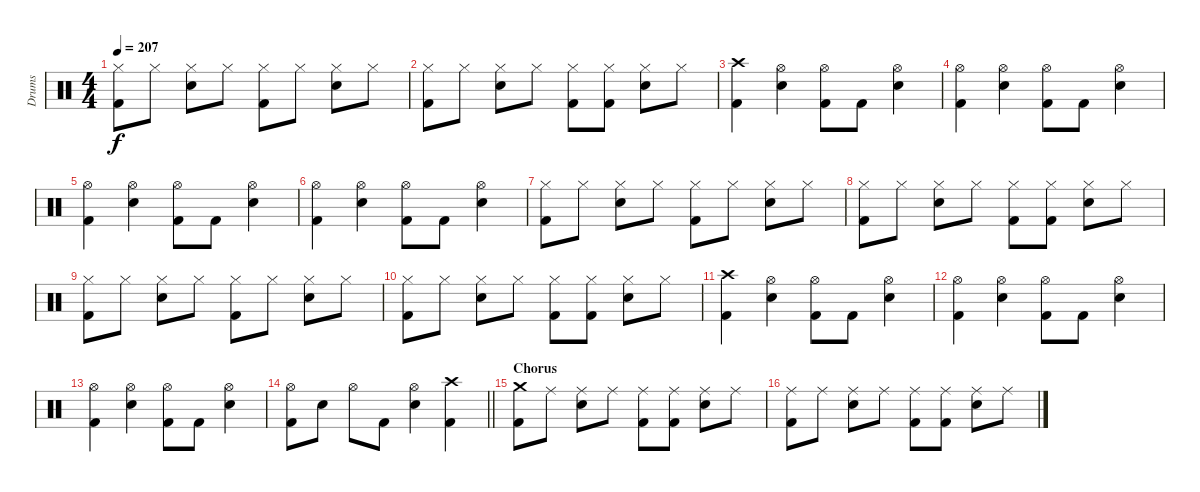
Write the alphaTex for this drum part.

\track ("Drums" "Drums") {instrument percussion}
\staff {score}
\articulation defaults
\ts (4 4)
\tempo 207
\clef neutral
\ks c
("Hi-Hat (closed)" "Kick (hit) 2").8{dy f} "Hi-Hat (closed)".8 ("Hi-Hat (closed)" "Electric Snare (hit)").8 "Hi-Hat (closed)".8 ("Hi-Hat (closed)" "Kick (hit) 2").8 "Hi-Hat (closed)".8 ("Hi-Hat (closed)" "Electric Snare (hit)").8 "Hi-Hat (closed)".8 |
("Hi-Hat (closed)" "Kick (hit) 2").8 "Hi-Hat (closed)".8 ("Hi-Hat (closed)" "Electric Snare (hit)").8 "Hi-Hat (closed)".8 ("Hi-Hat (closed)" "Kick (hit) 2").8 ("Hi-Hat (closed)" "Kick (hit) 2").8 ("Hi-Hat (closed)" "Electric Snare (hit)").8 "Hi-Hat (closed)".8 |
("Crash high (hit)" "Kick (hit) 2").4 ("Hi-Hat (open)" "Electric Snare (hit)").4 ("Hi-Hat (open)" "Kick (hit) 2").8 "Kick (hit) 2".8 ("Hi-Hat (open)" "Electric Snare (hit)").4 |
("Hi-Hat (open)" "Kick (hit) 2").4 ("Hi-Hat (open)" "Electric Snare (hit)").4 ("Hi-Hat (open)" "Kick (hit) 2").8 "Kick (hit) 2".8 ("Hi-Hat (open)" "Electric Snare (hit)").4 |
("Hi-Hat (open)" "Kick (hit) 2").4 ("Hi-Hat (open)" "Electric Snare (hit)").4 ("Hi-Hat (open)" "Kick (hit) 2").8 "Kick (hit) 2".8 ("Hi-Hat (open)" "Electric Snare (hit)").4 |
("Hi-Hat (open)" "Kick (hit) 2").4 ("Hi-Hat (open)" "Electric Snare (hit)").4 ("Hi-Hat (open)" "Kick (hit) 2").8 "Kick (hit) 2".8 ("Hi-Hat (open)" "Electric Snare (hit)").4 |
("Hi-Hat (closed)" "Kick (hit) 2").8 "Hi-Hat (closed)".8 ("Hi-Hat (closed)" "Electric Snare (hit)").8 "Hi-Hat (closed)".8 ("Hi-Hat (closed)" "Kick (hit) 2").8 "Hi-Hat (closed)".8 ("Hi-Hat (closed)" "Electric Snare (hit)").8 "Hi-Hat (closed)".8 |
("Hi-Hat (closed)" "Kick (hit) 2").8 "Hi-Hat (closed)".8 ("Hi-Hat (closed)" "Electric Snare (hit)").8 "Hi-Hat (closed)".8 ("Hi-Hat (closed)" "Kick (hit) 2").8 ("Hi-Hat (closed)" "Kick (hit) 2").8 ("Hi-Hat (closed)" "Electric Snare (hit)").8 "Hi-Hat (closed)".8 |
("Hi-Hat (closed)" "Kick (hit) 2").8 "Hi-Hat (closed)".8 ("Hi-Hat (closed)" "Electric Snare (hit)").8 "Hi-Hat (closed)".8 ("Hi-Hat (closed)" "Kick (hit) 2").8 "Hi-Hat (closed)".8 ("Hi-Hat (closed)" "Electric Snare (hit)").8 "Hi-Hat (closed)".8 |
("Hi-Hat (closed)" "Kick (hit) 2").8 "Hi-Hat (closed)".8 ("Hi-Hat (closed)" "Electric Snare (hit)").8 "Hi-Hat (closed)".8 ("Hi-Hat (closed)" "Kick (hit) 2").8 ("Hi-Hat (closed)" "Kick (hit) 2").8 ("Hi-Hat (closed)" "Electric Snare (hit)").8 "Hi-Hat (closed)".8 |
("Crash high (hit)" "Kick (hit) 2").4 ("Hi-Hat (open)" "Electric Snare (hit)").4 ("Hi-Hat (open)" "Kick (hit) 2").8 "Kick (hit) 2".8 ("Hi-Hat (open)" "Electric Snare (hit)").4 |
("Hi-Hat (open)" "Kick (hit) 2").4 ("Hi-Hat (open)" "Electric Snare (hit)").4 ("Hi-Hat (open)" "Kick (hit) 2").8 "Kick (hit) 2".8 ("Hi-Hat (open)" "Electric Snare (hit)").4 |
("Hi-Hat (open)" "Kick (hit) 2").4 ("Hi-Hat (open)" "Electric Snare (hit)").4 ("Hi-Hat (open)" "Kick (hit) 2").8 "Kick (hit) 2".8 ("Hi-Hat (open)" "Electric Snare (hit)").4 |
\barLineRight lightlight
("Hi-Hat (open)" "Kick (hit) 2").8 "Electric Snare (hit)".8 "Hi-Hat (open)".8 "Kick (hit) 2".8 ("Hi-Hat (open)" "Electric Snare (hit)").4 ("Crash high (hit)" "Kick (hit) 2").4 |
\section ("" "Chorus")
("Crash medium (hit)" "Kick (hit) 2").8 "Ride (middle)".8 ("Ride (middle)" "Electric Snare (hit)").8 "Ride (middle)".8 ("Ride (middle)" "Kick (hit) 2").8 ("Ride (middle)" "Kick (hit) 2").8 ("Ride (middle)" "Electric Snare (hit)").8 "Ride (middle)".8 |
("Ride (middle)" "Kick (hit) 2").8 "Ride (middle)".8 ("Ride (middle)" "Electric Snare (hit)").8 "Ride (middle)".8 ("Ride (middle)" "Kick (hit) 2").8 ("Ride (middle)" "Kick (hit) 2").8 ("Ride (middle)" "Electric Snare (hit)").8 "Ride (middle)".8
